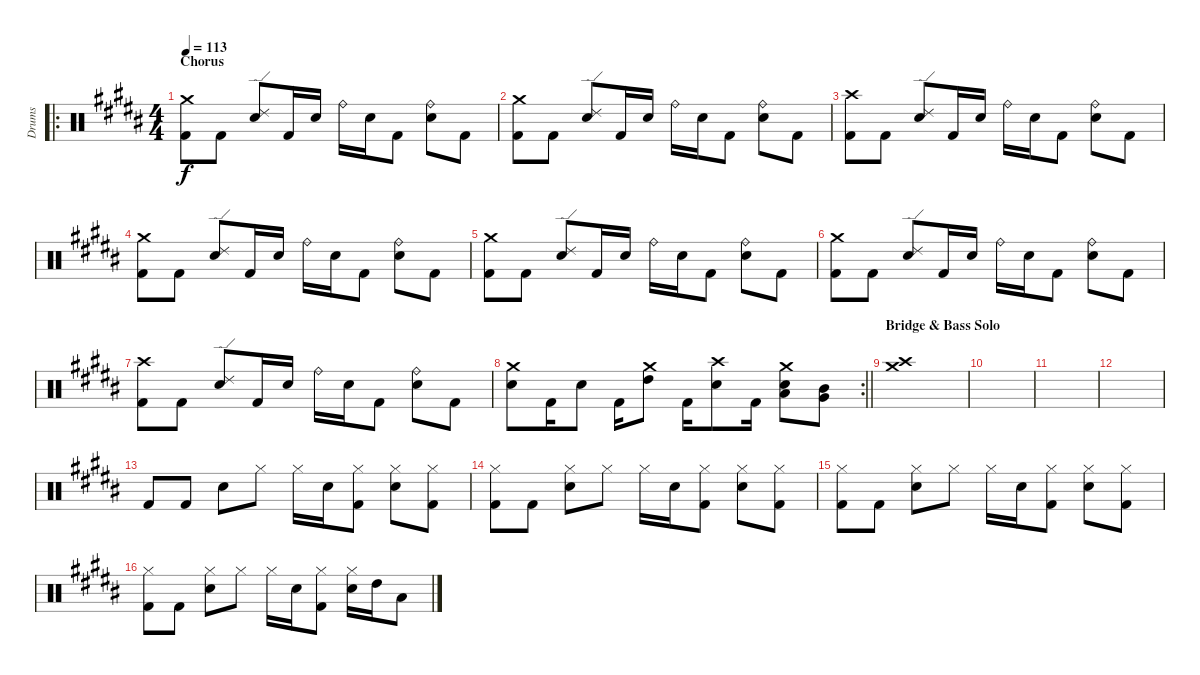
\track ("Drums" "Drums") {instrument percussion}
\staff {score}
\articulation defaults
\ro
\ts (4 4)
\section ("" "Chorus")
\tempo 113
\clef neutral
\ks b
("Kick (hit) 2" "Crash medium (hit)").8{dy f} "Kick (hit) 2".8 ("Electric Snare (hit)" "Ride (edge) 2").8 "Kick (hit) 2".16 "Electric Snare (hit)".16 "Ride (bell)".16 "Electric Snare (hit)".16 "Kick (hit) 2".8 ("Electric Snare (hit)" "Ride (bell)").8 "Kick (hit) 2".8 |
("Kick (hit) 2" "Crash medium (hit)").8 "Kick (hit) 2".8 ("Electric Snare (hit)" "Ride (edge) 2").8 "Kick (hit) 2".16 "Electric Snare (hit)".16 "Ride (bell)".16 "Electric Snare (hit)".16 "Kick (hit) 2".8 ("Electric Snare (hit)" "Ride (bell)").8 "Kick (hit) 2".8 |
("Kick (hit) 2" "Crash high (hit)").8 "Kick (hit) 2".8 ("Electric Snare (hit)" "Ride (edge) 2").8 "Kick (hit) 2".16 "Electric Snare (hit)".16 "Ride (bell)".16 "Electric Snare (hit)".16 "Kick (hit) 2".8 ("Electric Snare (hit)" "Ride (bell)").8 "Kick (hit) 2".8 |
("Kick (hit) 2" "Crash medium (hit)").8 "Kick (hit) 2".8 ("Electric Snare (hit)" "Ride (edge) 2").8 "Kick (hit) 2".16 "Electric Snare (hit)".16 "Ride (bell)".16 "Electric Snare (hit)".16 "Kick (hit) 2".8 ("Electric Snare (hit)" "Ride (bell)").8 "Kick (hit) 2".8 |
("Kick (hit) 2" "Crash medium (hit)").8 "Kick (hit) 2".8 ("Electric Snare (hit)" "Ride (edge) 2").8 "Kick (hit) 2".16 "Electric Snare (hit)".16 "Ride (bell)".16 "Electric Snare (hit)".16 "Kick (hit) 2".8 ("Electric Snare (hit)" "Ride (bell)").8 "Kick (hit) 2".8 |
("Kick (hit) 2" "Crash medium (hit)").8 "Kick (hit) 2".8 ("Electric Snare (hit)" "Ride (edge) 2").8 "Kick (hit) 2".16 "Electric Snare (hit)".16 "Ride (bell)".16 "Electric Snare (hit)".16 "Kick (hit) 2".8 ("Electric Snare (hit)" "Ride (bell)").8 "Kick (hit) 2".8 |
("Kick (hit) 2" "Crash high (hit)").8 "Kick (hit) 2".8 ("Electric Snare (hit)" "Ride (edge) 2").8 "Kick (hit) 2".16 "Electric Snare (hit)".16 "Ride (bell)".16 "Electric Snare (hit)".16 "Kick (hit) 2".8 ("Electric Snare (hit)" "Ride (bell)").8 "Kick (hit) 2".8 |
\rc 2
\barLineRight lightlight
("Electric Snare (hit)" "Crash medium (hit)").8 "Kick (hit) 2".16 "Electric Snare (hit)".8 "Kick (hit) 2".16 ("High Tom (hit)" "Crash medium (hit)").8 "Kick (hit) 2".16 ("Electric Snare (hit)" "Crash high (hit)").8 "Kick (hit) 2".16 ("Electric Snare (hit)" "Low Tom (hit)" "Crash medium (hit)").8 ("Very Low Tom (hit)" "Mid Tom (hit)").8 |
\section ("" "Bridge & Bass Solo")
("Crash high (hit)" "Crash medium (hit)").1 |
|
|
|
"Kick (hit) 2".8 "Kick (hit) 2".8 "Electric Snare (hit)".8 "Hi-Hat (closed)".8 "Hi-Hat (closed)".16 "Electric Snare (hit)".16 ("Kick (hit) 2" "Hi-Hat (closed)").8 ("Electric Snare (hit)" "Hi-Hat (closed)").8 ("Kick (hit) 2" "Hi-Hat (closed)").8 |
("Kick (hit) 2" "Hi-Hat (closed)").8 "Kick (hit) 2".8 ("Electric Snare (hit)" "Hi-Hat (closed)").8 "Hi-Hat (closed)".8 "Hi-Hat (closed)".16 "Electric Snare (hit)".16 ("Kick (hit) 2" "Hi-Hat (closed)").8 ("Electric Snare (hit)" "Hi-Hat (closed)").8 ("Kick (hit) 2" "Hi-Hat (closed)").8 |
("Kick (hit) 2" "Hi-Hat (closed)").8 "Kick (hit) 2".8 ("Electric Snare (hit)" "Hi-Hat (closed)").8 "Hi-Hat (closed)".8 "Hi-Hat (closed)".16 "Electric Snare (hit)".16 ("Kick (hit) 2" "Hi-Hat (closed)").8 ("Electric Snare (hit)" "Hi-Hat (closed)").8 ("Kick (hit) 2" "Hi-Hat (closed)").8 |
("Kick (hit) 2" "Hi-Hat (closed)").8 "Kick (hit) 2".8 ("Electric Snare (hit)" "Hi-Hat (closed)").8 "Hi-Hat (closed)".8 "Hi-Hat (closed)".16 "Electric Snare (hit)".16 ("Kick (hit) 2" "Hi-Hat (closed)").8 ("Electric Snare (hit)" "Hi-Hat (closed)").16 "High Tom (hit)".16 "Low Tom (hit)".8
